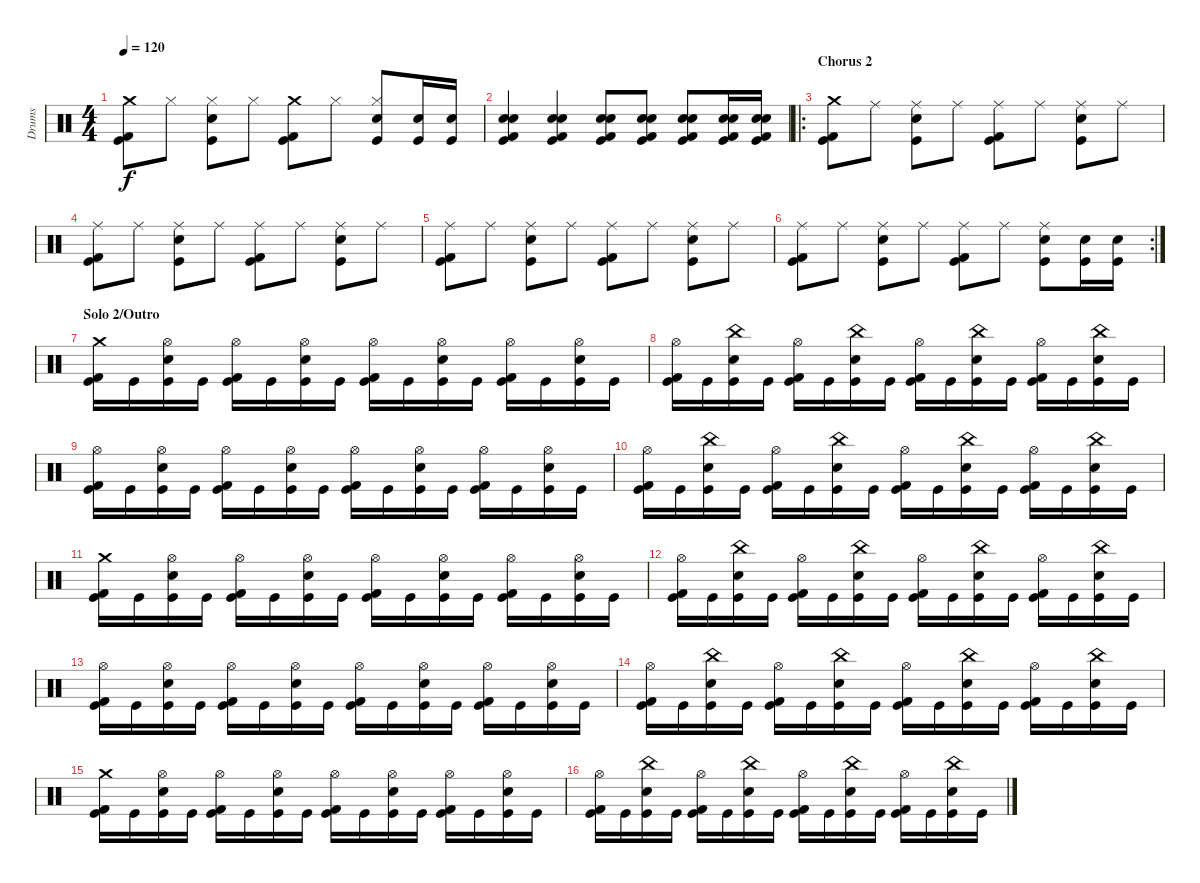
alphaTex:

\track ("Drums" "Drums") {instrument percussion}
\staff {score}
\articulation defaults
\ts (4 4)
\tempo 120
\clef neutral
\ks c
("Kick (hit)" "Kick (hit) 2" "Crash medium (hit)").8{dy f} "Hi-Hat (closed)".8 ("Hi-Hat (closed)" "Kick (hit)" "Snare (hit) 2").8 "Hi-Hat (closed)".8 ("Kick (hit)" "Kick (hit) 2" "Crash medium (hit)").8 "Hi-Hat (closed)".8 ("Hi-Hat (closed)" "Kick (hit)" "Snare (hit) 2").8 ("Kick (hit)" "Snare (hit) 2").16 ("Kick (hit)" "Snare (hit) 2").16 |
("Kick (hit)" "Kick (hit) 2" "Snare (hit) 2" "Electric Snare (hit)").4 ("Kick (hit)" "Kick (hit) 2" "Snare (hit) 2" "Electric Snare (hit)").4 ("Kick (hit)" "Kick (hit) 2" "Snare (hit) 2" "Electric Snare (hit)").8 ("Kick (hit)" "Kick (hit) 2" "Snare (hit) 2" "Electric Snare (hit)").8 ("Kick (hit)" "Kick (hit) 2" "Snare (hit) 2" "Electric Snare (hit)").8 ("Kick (hit)" "Kick (hit) 2" "Snare (hit) 2" "Electric Snare (hit)").16 ("Kick (hit)" "Kick (hit) 2" "Snare (hit) 2" "Electric Snare (hit)").16 |
\ro
\section ("" "Chorus 2")
("Kick (hit)" "Kick (hit) 2" "Crash medium (hit)").8 "Ride (middle)".8 ("Ride (middle)" "Kick (hit)" "Snare (hit) 2").8 "Ride (middle)".8 ("Ride (middle)" "Kick (hit)" "Kick (hit) 2").8 "Ride (middle)".8 ("Ride (middle)" "Kick (hit)" "Snare (hit) 2").8 "Ride (middle)".8 |
("Ride (middle)" "Kick (hit)" "Kick (hit) 2").8 "Ride (middle)".8 ("Ride (middle)" "Kick (hit)" "Snare (hit) 2").8 "Ride (middle)".8 ("Ride (middle)" "Kick (hit)" "Kick (hit) 2").8 "Ride (middle)".8 ("Ride (middle)" "Kick (hit)" "Snare (hit) 2").8 "Ride (middle)".8 |
("Ride (middle)" "Kick (hit)" "Kick (hit) 2").8 "Ride (middle)".8 ("Ride (middle)" "Kick (hit)" "Snare (hit) 2").8 "Ride (middle)".8 ("Ride (middle)" "Kick (hit)" "Kick (hit) 2").8 "Ride (middle)".8 ("Ride (middle)" "Kick (hit)" "Snare (hit) 2").8 "Ride (middle)".8 |
\rc 2
("Ride (middle)" "Kick (hit)" "Kick (hit) 2").8 "Ride (middle)".8 ("Ride (middle)" "Kick (hit)" "Snare (hit) 2").8 "Ride (middle)".8 ("Ride (middle)" "Kick (hit)" "Kick (hit) 2").8 "Ride (middle)".8 ("Ride (middle)" "Kick (hit)" "Snare (hit) 2").8 ("Kick (hit)" "Snare (hit) 2").16 ("Kick (hit)" "Snare (hit) 2").16 |
\section ("" "Solo 2/Outro")
("Kick (hit)" "Kick (hit) 2" "Crash medium (hit)").16 "Kick (hit)".16 ("Hi-Hat (open)" "Kick (hit)" "Snare (hit) 2").16 "Kick (hit)".16 ("Hi-Hat (open)" "Kick (hit)" "Kick (hit) 2").16 "Kick (hit)".16 ("Hi-Hat (open)" "Kick (hit)" "Snare (hit) 2").16 "Kick (hit)".16 ("Hi-Hat (open)" "Kick (hit)" "Kick (hit) 2").16 "Kick (hit)".16 ("Hi-Hat (open)" "Kick (hit)" "Snare (hit) 2").16 "Kick (hit)".16 ("Hi-Hat (open)" "Kick (hit)" "Kick (hit) 2").16 "Kick (hit)".16 ("Hi-Hat (open)" "Kick (hit)" "Snare (hit) 2").16 "Kick (hit)".16 |
("Hi-Hat (open)" "Kick (hit)" "Kick (hit) 2").16 "Kick (hit)".16 ("China (hit)" "Kick (hit)" "Snare (hit) 2").16 "Kick (hit)".16 ("Hi-Hat (open)" "Kick (hit)" "Kick (hit) 2").16 "Kick (hit)".16 ("China (hit)" "Kick (hit)" "Snare (hit) 2").16 "Kick (hit)".16 ("Hi-Hat (open)" "Kick (hit)" "Kick (hit) 2").16 "Kick (hit)".16 ("China (hit)" "Kick (hit)" "Snare (hit) 2").16 "Kick (hit)".16 ("Hi-Hat (open)" "Kick (hit)" "Kick (hit) 2").16 "Kick (hit)".16 ("China (hit)" "Kick (hit)" "Snare (hit) 2").16 "Kick (hit)".16 |
("Hi-Hat (open)" "Kick (hit)" "Kick (hit) 2").16 "Kick (hit)".16 ("Hi-Hat (open)" "Kick (hit)" "Snare (hit) 2").16 "Kick (hit)".16 ("Hi-Hat (open)" "Kick (hit)" "Kick (hit) 2").16 "Kick (hit)".16 ("Hi-Hat (open)" "Kick (hit)" "Snare (hit) 2").16 "Kick (hit)".16 ("Hi-Hat (open)" "Kick (hit)" "Kick (hit) 2").16 "Kick (hit)".16 ("Hi-Hat (open)" "Kick (hit)" "Snare (hit) 2").16 "Kick (hit)".16 ("Hi-Hat (open)" "Kick (hit)" "Kick (hit) 2").16 "Kick (hit)".16 ("Hi-Hat (open)" "Kick (hit)" "Snare (hit) 2").16 "Kick (hit)".16 |
("Hi-Hat (open)" "Kick (hit)" "Kick (hit) 2").16 "Kick (hit)".16 ("China (hit)" "Kick (hit)" "Snare (hit) 2").16 "Kick (hit)".16 ("Hi-Hat (open)" "Kick (hit)" "Kick (hit) 2").16 "Kick (hit)".16 ("China (hit)" "Kick (hit)" "Snare (hit) 2").16 "Kick (hit)".16 ("Hi-Hat (open)" "Kick (hit)" "Kick (hit) 2").16 "Kick (hit)".16 ("China (hit)" "Kick (hit)" "Snare (hit) 2").16 "Kick (hit)".16 ("Hi-Hat (open)" "Kick (hit)" "Kick (hit) 2").16 "Kick (hit)".16 ("China (hit)" "Kick (hit)" "Snare (hit) 2").16 "Kick (hit)".16 |
("Kick (hit)" "Kick (hit) 2" "Crash medium (hit)").16 "Kick (hit)".16 ("Hi-Hat (open)" "Kick (hit)" "Snare (hit) 2").16 "Kick (hit)".16 ("Hi-Hat (open)" "Kick (hit)" "Kick (hit) 2").16 "Kick (hit)".16 ("Hi-Hat (open)" "Kick (hit)" "Snare (hit) 2").16 "Kick (hit)".16 ("Hi-Hat (open)" "Kick (hit)" "Kick (hit) 2").16 "Kick (hit)".16 ("Hi-Hat (open)" "Kick (hit)" "Snare (hit) 2").16 "Kick (hit)".16 ("Hi-Hat (open)" "Kick (hit)" "Kick (hit) 2").16 "Kick (hit)".16 ("Hi-Hat (open)" "Kick (hit)" "Snare (hit) 2").16 "Kick (hit)".16 |
("Hi-Hat (open)" "Kick (hit)" "Kick (hit) 2").16 "Kick (hit)".16 ("China (hit)" "Kick (hit)" "Snare (hit) 2").16 "Kick (hit)".16 ("Hi-Hat (open)" "Kick (hit)" "Kick (hit) 2").16 "Kick (hit)".16 ("China (hit)" "Kick (hit)" "Snare (hit) 2").16 "Kick (hit)".16 ("Hi-Hat (open)" "Kick (hit)" "Kick (hit) 2").16 "Kick (hit)".16 ("China (hit)" "Kick (hit)" "Snare (hit) 2").16 "Kick (hit)".16 ("Hi-Hat (open)" "Kick (hit)" "Kick (hit) 2").16 "Kick (hit)".16 ("China (hit)" "Kick (hit)" "Snare (hit) 2").16 "Kick (hit)".16 |
("Hi-Hat (open)" "Kick (hit)" "Kick (hit) 2").16 "Kick (hit)".16 ("Hi-Hat (open)" "Kick (hit)" "Snare (hit) 2").16 "Kick (hit)".16 ("Hi-Hat (open)" "Kick (hit)" "Kick (hit) 2").16 "Kick (hit)".16 ("Hi-Hat (open)" "Kick (hit)" "Snare (hit) 2").16 "Kick (hit)".16 ("Hi-Hat (open)" "Kick (hit)" "Kick (hit) 2").16 "Kick (hit)".16 ("Hi-Hat (open)" "Kick (hit)" "Snare (hit) 2").16 "Kick (hit)".16 ("Hi-Hat (open)" "Kick (hit)" "Kick (hit) 2").16 "Kick (hit)".16 ("Hi-Hat (open)" "Kick (hit)" "Snare (hit) 2").16 "Kick (hit)".16 |
("Hi-Hat (open)" "Kick (hit)" "Kick (hit) 2").16 "Kick (hit)".16 ("China (hit)" "Kick (hit)" "Snare (hit) 2").16 "Kick (hit)".16 ("Hi-Hat (open)" "Kick (hit)" "Kick (hit) 2").16 "Kick (hit)".16 ("China (hit)" "Kick (hit)" "Snare (hit) 2").16 "Kick (hit)".16 ("Hi-Hat (open)" "Kick (hit)" "Kick (hit) 2").16 "Kick (hit)".16 ("China (hit)" "Kick (hit)" "Snare (hit) 2").16 "Kick (hit)".16 ("Hi-Hat (open)" "Kick (hit)" "Kick (hit) 2").16 "Kick (hit)".16 ("China (hit)" "Kick (hit)" "Snare (hit) 2").16 "Kick (hit)".16 |
("Kick (hit)" "Kick (hit) 2" "Crash medium (hit)").16 "Kick (hit)".16 ("Hi-Hat (open)" "Kick (hit)" "Snare (hit) 2").16 "Kick (hit)".16 ("Hi-Hat (open)" "Kick (hit)" "Kick (hit) 2").16 "Kick (hit)".16 ("Hi-Hat (open)" "Kick (hit)" "Snare (hit) 2").16 "Kick (hit)".16 ("Hi-Hat (open)" "Kick (hit)" "Kick (hit) 2").16 "Kick (hit)".16 ("Hi-Hat (open)" "Kick (hit)" "Snare (hit) 2").16 "Kick (hit)".16 ("Hi-Hat (open)" "Kick (hit)" "Kick (hit) 2").16 "Kick (hit)".16 ("Hi-Hat (open)" "Kick (hit)" "Snare (hit) 2").16 "Kick (hit)".16 |
("Hi-Hat (open)" "Kick (hit)" "Kick (hit) 2").16 "Kick (hit)".16 ("China (hit)" "Kick (hit)" "Snare (hit) 2").16 "Kick (hit)".16 ("Hi-Hat (open)" "Kick (hit)" "Kick (hit) 2").16 "Kick (hit)".16 ("China (hit)" "Kick (hit)" "Snare (hit) 2").16 "Kick (hit)".16 ("Hi-Hat (open)" "Kick (hit)" "Kick (hit) 2").16 "Kick (hit)".16 ("China (hit)" "Kick (hit)" "Snare (hit) 2").16 "Kick (hit)".16 ("Hi-Hat (open)" "Kick (hit)" "Kick (hit) 2").16 "Kick (hit)".16 ("China (hit)" "Kick (hit)" "Snare (hit) 2").16 "Kick (hit)".16
